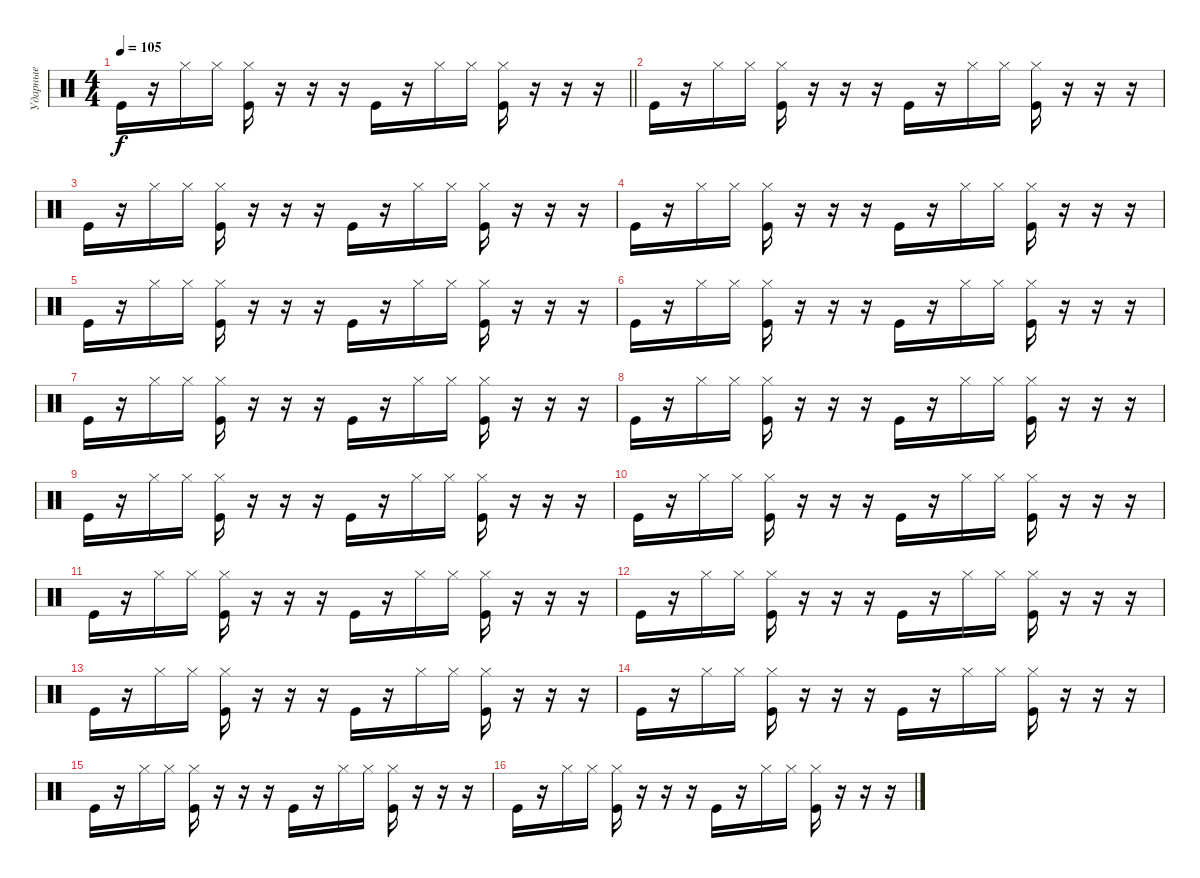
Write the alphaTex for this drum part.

\track ("Ударные" "Ударные") {instrument percussion}
\staff {score}
\articulation defaults
\ts (4 4)
\tempo 105
\clef neutral
\barLineRight lightlight
\ks c "Kick (hit)".16{dy f}
r.16 "Hi-Hat (closed)".16 "Hi-Hat (closed)".16 ("Hi-Hat (closed)" "Kick (hit)").16 r.16 r.16 r.16 "Kick (hit)".16 r.16 "Hi-Hat (closed)".16 "Hi-Hat (closed)".16 ("Hi-Hat (closed)" "Kick (hit)").16 r.16 r.16 r.16 |
"Kick (hit)".16 r.16 "Hi-Hat (closed)".16 "Hi-Hat (closed)".16 ("Hi-Hat (closed)" "Kick (hit)").16 r.16 r.16 r.16 "Kick (hit)".16 r.16 "Hi-Hat (closed)".16 "Hi-Hat (closed)".16 ("Hi-Hat (closed)" "Kick (hit)").16 r.16 r.16 r.16 |
"Kick (hit)".16 r.16 "Hi-Hat (closed)".16 "Hi-Hat (closed)".16 ("Hi-Hat (closed)" "Kick (hit)").16 r.16 r.16 r.16 "Kick (hit)".16 r.16 "Hi-Hat (closed)".16 "Hi-Hat (closed)".16 ("Hi-Hat (closed)" "Kick (hit)").16 r.16 r.16 r.16 |
"Kick (hit)".16 r.16 "Hi-Hat (closed)".16 "Hi-Hat (closed)".16 ("Hi-Hat (closed)" "Kick (hit)").16 r.16 r.16 r.16 "Kick (hit)".16 r.16 "Hi-Hat (closed)".16 "Hi-Hat (closed)".16 ("Hi-Hat (closed)" "Kick (hit)").16 r.16 r.16 r.16 |
"Kick (hit)".16 r.16 "Hi-Hat (closed)".16 "Hi-Hat (closed)".16 ("Hi-Hat (closed)" "Kick (hit)").16 r.16 r.16 r.16 "Kick (hit)".16 r.16 "Hi-Hat (closed)".16 "Hi-Hat (closed)".16 ("Hi-Hat (closed)" "Kick (hit)").16 r.16 r.16 r.16 |
"Kick (hit)".16 r.16 "Hi-Hat (closed)".16 "Hi-Hat (closed)".16 ("Hi-Hat (closed)" "Kick (hit)").16 r.16 r.16 r.16 "Kick (hit)".16 r.16 "Hi-Hat (closed)".16 "Hi-Hat (closed)".16 ("Hi-Hat (closed)" "Kick (hit)").16 r.16 r.16 r.16 |
"Kick (hit)".16 r.16 "Hi-Hat (closed)".16 "Hi-Hat (closed)".16 ("Hi-Hat (closed)" "Kick (hit)").16 r.16 r.16 r.16 "Kick (hit)".16 r.16 "Hi-Hat (closed)".16 "Hi-Hat (closed)".16 ("Hi-Hat (closed)" "Kick (hit)").16 r.16 r.16 r.16 |
"Kick (hit)".16 r.16 "Hi-Hat (closed)".16 "Hi-Hat (closed)".16 ("Hi-Hat (closed)" "Kick (hit)").16 r.16 r.16 r.16 "Kick (hit)".16 r.16 "Hi-Hat (closed)".16 "Hi-Hat (closed)".16 ("Hi-Hat (closed)" "Kick (hit)").16 r.16 r.16 r.16 |
"Kick (hit)".16 r.16 "Hi-Hat (closed)".16 "Hi-Hat (closed)".16 ("Hi-Hat (closed)" "Kick (hit)").16 r.16 r.16 r.16 "Kick (hit)".16 r.16 "Hi-Hat (closed)".16 "Hi-Hat (closed)".16 ("Hi-Hat (closed)" "Kick (hit)").16 r.16 r.16 r.16 |
"Kick (hit)".16 r.16 "Hi-Hat (closed)".16 "Hi-Hat (closed)".16 ("Hi-Hat (closed)" "Kick (hit)").16 r.16 r.16 r.16 "Kick (hit)".16 r.16 "Hi-Hat (closed)".16 "Hi-Hat (closed)".16 ("Hi-Hat (closed)" "Kick (hit)").16 r.16 r.16 r.16 |
"Kick (hit)".16 r.16 "Hi-Hat (closed)".16 "Hi-Hat (closed)".16 ("Hi-Hat (closed)" "Kick (hit)").16 r.16 r.16 r.16 "Kick (hit)".16 r.16 "Hi-Hat (closed)".16 "Hi-Hat (closed)".16 ("Hi-Hat (closed)" "Kick (hit)").16 r.16 r.16 r.16 |
"Kick (hit)".16 r.16 "Hi-Hat (closed)".16 "Hi-Hat (closed)".16 ("Hi-Hat (closed)" "Kick (hit)").16 r.16 r.16 r.16 "Kick (hit)".16 r.16 "Hi-Hat (closed)".16 "Hi-Hat (closed)".16 ("Hi-Hat (closed)" "Kick (hit)").16 r.16 r.16 r.16 |
"Kick (hit)".16 r.16 "Hi-Hat (closed)".16 "Hi-Hat (closed)".16 ("Hi-Hat (closed)" "Kick (hit)").16 r.16 r.16 r.16 "Kick (hit)".16 r.16 "Hi-Hat (closed)".16 "Hi-Hat (closed)".16 ("Hi-Hat (closed)" "Kick (hit)").16 r.16 r.16 r.16 |
"Kick (hit)".16 r.16 "Hi-Hat (closed)".16 "Hi-Hat (closed)".16 ("Hi-Hat (closed)" "Kick (hit)").16 r.16 r.16 r.16 "Kick (hit)".16 r.16 "Hi-Hat (closed)".16 "Hi-Hat (closed)".16 ("Hi-Hat (closed)" "Kick (hit)").16 r.16 r.16 r.16 |
"Kick (hit)".16 r.16 "Hi-Hat (closed)".16 "Hi-Hat (closed)".16 ("Hi-Hat (closed)" "Kick (hit)").16 r.16 r.16 r.16 "Kick (hit)".16 r.16 "Hi-Hat (closed)".16 "Hi-Hat (closed)".16 ("Hi-Hat (closed)" "Kick (hit)").16 r.16 r.16 r.16 |
"Kick (hit)".16 r.16 "Hi-Hat (closed)".16 "Hi-Hat (closed)".16 ("Hi-Hat (closed)" "Kick (hit)").16 r.16 r.16 r.16 "Kick (hit)".16 r.16 "Hi-Hat (closed)".16 "Hi-Hat (closed)".16 ("Hi-Hat (closed)" "Kick (hit)").16 r.16 r.16 r.16
